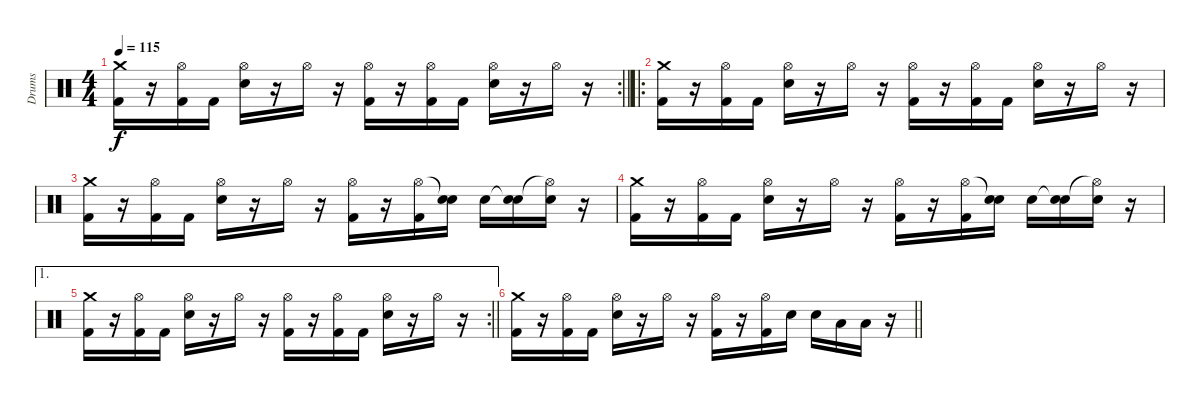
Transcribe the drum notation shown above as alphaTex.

\track ("Drums" "Drums") {instrument percussion}
\staff {score}
\articulation defaults
\rc 2
\ts (4 4)
\tempo 115
\clef neutral
\barLineRight lightlight
\ks c
("Crash medium (hit)" "Kick (hit) 2").16{dy f} r.16 ("Hi-Hat (open)" "Kick (hit) 2").16 "Kick (hit) 2".16 ("Hi-Hat (open)" "Electric Snare (hit)").16 r.16 "Hi-Hat (open)".16 r.16 ("Hi-Hat (open)" "Kick (hit) 2").16 r.16 ("Hi-Hat (open)" "Kick (hit) 2").16 "Kick (hit) 2".16 ("Hi-Hat (open)" "Electric Snare (hit)").16 r.16 "Hi-Hat (open)".16 r.16 |
\ro
("Crash medium (hit)" "Kick (hit) 2").16 r.16 ("Hi-Hat (open)" "Kick (hit) 2").16 "Kick (hit) 2".16 ("Hi-Hat (open)" "Electric Snare (hit)").16 r.16 "Hi-Hat (open)".16 r.16 ("Hi-Hat (open)" "Kick (hit) 2").16 r.16 ("Hi-Hat (open)" "Kick (hit) 2").16 "Kick (hit) 2".16 ("Hi-Hat (open)" "Electric Snare (hit)").16 r.16 "Hi-Hat (open)".16 r.16 |
("Crash medium (hit)" "Kick (hit) 2").16 r.16 ("Hi-Hat (open)" "Kick (hit) 2").16 "Kick (hit) 2".16 ("Hi-Hat (open)" "Electric Snare (hit)").16 r.16 "Hi-Hat (open)".16 r.16 ("Hi-Hat (open)" "Kick (hit) 2").16 r.16 ("Hi-Hat (open)" "Kick (hit) 2").16 ("Snare (hit)"{t} "Electric Snare (hit)").16 "Electric Snare (hit)".16 ("Snare (hit)"{t} "Electric Snare (hit)").16 ("Hi-Hat (open)"{t} "Electric Snare (hit)").16 r.16 |
("Crash medium (hit)" "Kick (hit) 2").16 r.16 ("Hi-Hat (open)" "Kick (hit) 2").16 "Kick (hit) 2".16 ("Hi-Hat (open)" "Electric Snare (hit)").16 r.16 "Hi-Hat (open)".16 r.16 ("Hi-Hat (open)" "Kick (hit) 2").16 r.16 ("Hi-Hat (open)" "Kick (hit) 2").16 ("Snare (hit)"{t} "Electric Snare (hit)").16 "Electric Snare (hit)".16 ("Snare (hit)"{t} "Electric Snare (hit)").16 ("Hi-Hat (open)"{t} "Electric Snare (hit)").16 r.16 |
\ae 1
\rc 2
\barLineRight lightlight
("Crash medium (hit)" "Kick (hit) 2").16 r.16 ("Hi-Hat (open)" "Kick (hit) 2").16 "Kick (hit) 2".16 ("Hi-Hat (open)" "Electric Snare (hit)").16 r.16 "Hi-Hat (open)".16 r.16 ("Hi-Hat (open)" "Kick (hit) 2").16 r.16 ("Hi-Hat (open)" "Kick (hit) 2").16 "Kick (hit) 2".16 ("Hi-Hat (open)" "Electric Snare (hit)").16 r.16 "Hi-Hat (open)".16 r.16 |
\barLineRight lightlight
("Crash medium (hit)" "Kick (hit) 2").16 r.16 ("Hi-Hat (open)" "Kick (hit) 2").16 "Kick (hit) 2".16 ("Hi-Hat (open)" "Electric Snare (hit)").16 r.16 "Hi-Hat (open)".16 r.16 ("Hi-Hat (open)" "Kick (hit) 2").16 r.16 ("Hi-Hat (open)" "Kick (hit) 2").16 "Electric Snare (hit)".16 "Electric Snare (hit)".16 "Low Tom (hit)".16 "Low Tom (hit)".16 r.16
